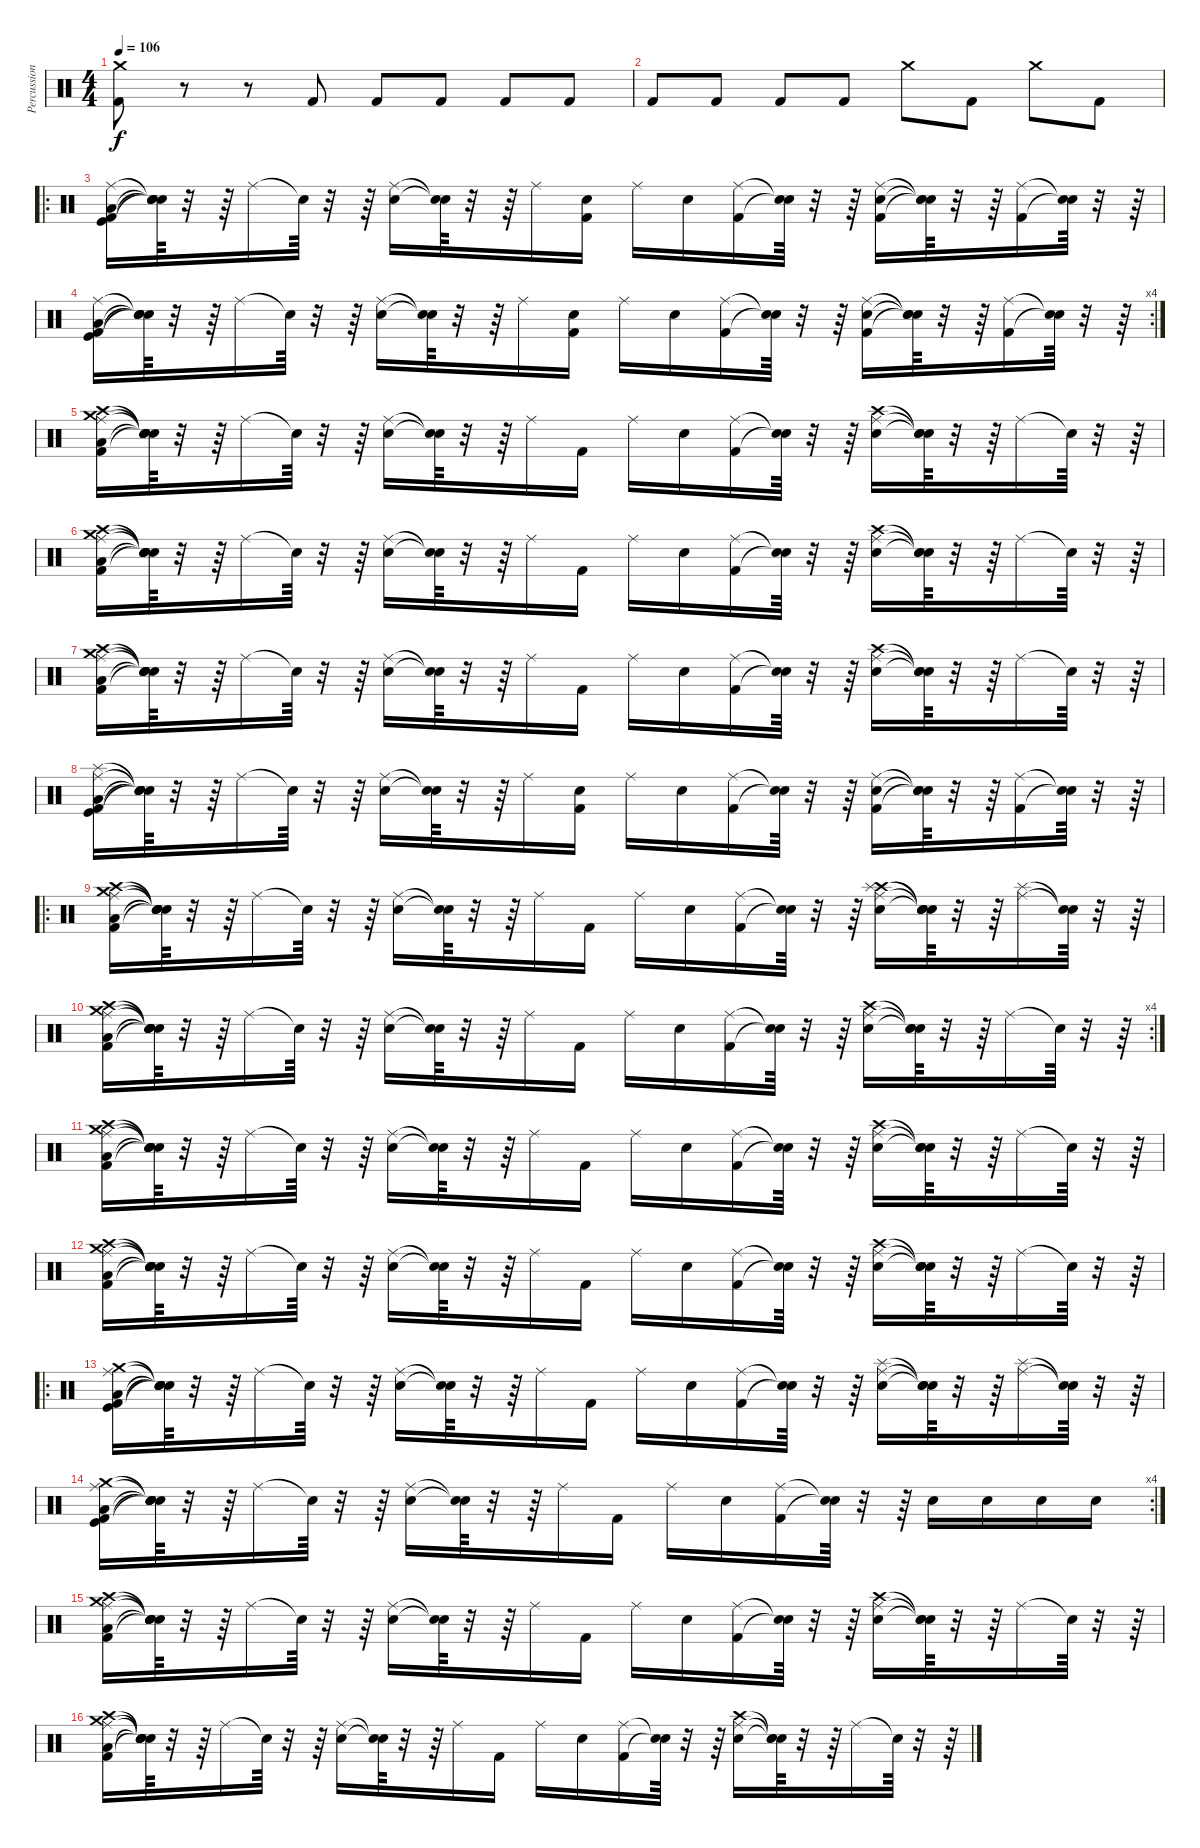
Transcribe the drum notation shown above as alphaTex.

\track ("Percussion" "Percussion") {instrument percussion}
\staff {score}
\articulation defaults
\ts (4 4)
\tempo 106
\clef neutral
\ks c
("Kick (hit) 2" "Crash medium (hit)").8{dy f} r.8 r.8 "Kick (hit) 2".8 "Kick (hit) 2".8 "Kick (hit) 2".8 "Kick (hit) 2".8 "Kick (hit) 2".8 |
"Kick (hit) 2".8 "Kick (hit) 2".8 "Kick (hit) 2".8 "Kick (hit) 2".8 "Crash medium (hit)".8 "Kick (hit) 2".8 "Crash medium (hit)".8 "Kick (hit) 2".8 |
\ro
("Kick (hit) 2" "Low Tom (hit)" "Kick (hit)" "Ride (middle)").16 ("Snare (hit)"{t} "Snare (hit)"{t} "Snare (hit)"{t} "Snare (hit)"{t}).64 r.32 r.64 "Ride (middle)".16 "Snare (hit)"{t}.64 r.32 r.64 ("Snare (hit) 2" "Ride (middle)").16 ("Snare (hit)"{t} "Snare (hit)"{t}).64 r.32 r.64 "Ride (middle)".16 ("Kick (hit) 2" "Snare (hit) 2").16 "Ride (middle)".16 "Snare (hit) 2".16 ("Kick (hit) 2" "Ride (middle)").16 ("Snare (hit)"{t} "Snare (hit)"{t}).64 r.32 r.64 ("Ride (middle)" "Snare (hit) 2" "Kick (hit) 2").16 ("Snare (hit)"{t} "Snare (hit)"{t} "Snare (hit)"{t}).64 r.32 r.64 ("Ride (middle)" "Kick (hit) 2").16 ("Snare (hit)"{t} "Snare (hit)"{t}).64 r.32 r.64 |
\rc 4
("Kick (hit) 2" "Low Tom (hit)" "Kick (hit)" "Ride (middle)").16 ("Snare (hit)"{t} "Snare (hit)"{t} "Snare (hit)"{t} "Snare (hit)"{t}).64 r.32 r.64 "Ride (middle)".16 "Snare (hit)"{t}.64 r.32 r.64 ("Snare (hit) 2" "Ride (middle)").16 ("Snare (hit)"{t} "Snare (hit)"{t}).64 r.32 r.64 "Ride (middle)".16 ("Kick (hit) 2" "Snare (hit) 2").16 "Ride (middle)".16 "Snare (hit) 2".16 ("Kick (hit) 2" "Ride (middle)").16 ("Snare (hit)"{t} "Snare (hit)"{t}).64 r.32 r.64 ("Ride (middle)" "Snare (hit) 2" "Kick (hit) 2").16 ("Snare (hit)"{t} "Snare (hit)"{t} "Snare (hit)"{t}).64 r.32 r.64 ("Ride (middle)" "Kick (hit) 2").16 ("Snare (hit)"{t} "Snare (hit)"{t}).64 r.32 r.64 |
("Kick (hit) 2" "Low Tom (hit)" "Crash high (hit)" "Ride (middle)" "Crash medium (hit)").16 ("Snare (hit)"{t} "Snare (hit)"{t} "Snare (hit)"{t} "Snare (hit)"{t} "Snare (hit)"{t}).64 r.32 r.64 "Ride (middle)".16 "Snare (hit)"{t}.64 r.32 r.64 ("Snare (hit) 2" "Ride (middle)").16 ("Snare (hit)"{t} "Snare (hit)"{t}).64 r.32 r.64 "Ride (middle)".16 "Kick (hit) 2".16 "Ride (middle)".16 "Snare (hit) 2".16 ("Kick (hit) 2" "Ride (middle)").16 ("Snare (hit)"{t} "Snare (hit)"{t}).64 r.32 r.64 ("Ride (middle)" "Snare (hit) 2" "Crash high (hit)").16 ("Snare (hit)"{t} "Snare (hit)"{t} "Snare (hit)"{t}).64 r.32 r.64 "Ride (middle)".16 "Snare (hit)"{t}.64 r.32 r.64 |
("Kick (hit) 2" "Low Tom (hit)" "Crash high (hit)" "Ride (middle)" "Crash medium (hit)").16 ("Snare (hit)"{t} "Snare (hit)"{t} "Snare (hit)"{t} "Snare (hit)"{t} "Snare (hit)"{t}).64 r.32 r.64 "Ride (middle)".16 "Snare (hit)"{t}.64 r.32 r.64 ("Snare (hit) 2" "Ride (middle)").16 ("Snare (hit)"{t} "Snare (hit)"{t}).64 r.32 r.64 "Ride (middle)".16 "Kick (hit) 2".16 "Ride (middle)".16 "Snare (hit) 2".16 ("Kick (hit) 2" "Ride (middle)").16 ("Snare (hit)"{t} "Snare (hit)"{t}).64 r.32 r.64 ("Ride (middle)" "Snare (hit) 2" "Crash high (hit)").16 ("Snare (hit)"{t} "Snare (hit)"{t} "Snare (hit)"{t}).64 r.32 r.64 "Ride (middle)".16 "Snare (hit)"{t}.64 r.32 r.64 |
("Kick (hit) 2" "Low Tom (hit)" "Crash high (hit)" "Ride (middle)" "Crash medium (hit)").16 ("Snare (hit)"{t} "Snare (hit)"{t} "Snare (hit)"{t} "Snare (hit)"{t} "Snare (hit)"{t}).64 r.32 r.64 "Ride (middle)".16 "Snare (hit)"{t}.64 r.32 r.64 ("Snare (hit) 2" "Ride (middle)").16 ("Snare (hit)"{t} "Snare (hit)"{t}).64 r.32 r.64 "Ride (middle)".16 "Kick (hit) 2".16 "Ride (middle)".16 "Snare (hit) 2".16 ("Kick (hit) 2" "Ride (middle)").16 ("Snare (hit)"{t} "Snare (hit)"{t}).64 r.32 r.64 ("Ride (middle)" "Snare (hit) 2" "Crash high (hit)").16 ("Snare (hit)"{t} "Snare (hit)"{t} "Snare (hit)"{t}).64 r.32 r.64 "Ride (middle)".16 "Snare (hit)"{t}.64 r.32 r.64 |
("Kick (hit) 2" "Low Tom (hit)" "Kick (hit)" "Ride (middle)" "Splash (hit)").16 ("Snare (hit)"{t} "Snare (hit)"{t} "Snare (hit)"{t} "Snare (hit)"{t} "Snare (hit)"{t}).64 r.32 r.64 "Ride (middle)".16 "Snare (hit)"{t}.64 r.32 r.64 ("Snare (hit) 2" "Ride (middle)").16 ("Snare (hit)"{t} "Snare (hit)"{t}).64 r.32 r.64 "Ride (middle)".16 ("Kick (hit) 2" "Snare (hit) 2").16 "Ride (middle)".16 "Snare (hit) 2".16 ("Kick (hit) 2" "Ride (middle)").16 ("Snare (hit)"{t} "Snare (hit)"{t}).64 r.32 r.64 ("Ride (middle)" "Snare (hit) 2" "Kick (hit) 2").16 ("Snare (hit)"{t} "Snare (hit)"{t} "Snare (hit)"{t}).64 r.32 r.64 ("Ride (middle)" "Kick (hit) 2").16 ("Snare (hit)"{t} "Snare (hit)"{t}).64 r.32 r.64 |
\ro
("Kick (hit) 2" "Low Tom (hit)" "Crash high (hit)" "Ride (middle)" "Crash medium (hit)").16 ("Snare (hit)"{t} "Snare (hit)"{t} "Snare (hit)"{t} "Snare (hit)"{t} "Snare (hit)"{t}).64 r.32 r.64 "Ride (middle)".16 "Snare (hit)"{t}.64 r.32 r.64 ("Snare (hit) 2" "Ride (middle)").16 ("Snare (hit)"{t} "Snare (hit)"{t}).64 r.32 r.64 "Ride (middle)".16 "Kick (hit) 2".16 "Ride (middle)".16 "Snare (hit) 2".16 ("Kick (hit) 2" "Ride (middle)").16 ("Snare (hit)"{t} "Snare (hit)"{t}).64 r.32 r.64 ("Ride (middle)" "Snare (hit) 2" "Crash high (hit)" "Splash (hit)").16 ("Snare (hit)"{t} "Snare (hit)"{t} "Snare (hit)"{t} "Snare (hit)"{t}).64 r.32 r.64 ("Ride (middle)" "Splash (hit)").16 ("Snare (hit)"{t} "Snare (hit)"{t}).64 r.32 r.64 |
\rc 4
("Kick (hit) 2" "Low Tom (hit)" "Crash high (hit)" "Ride (middle)" "Crash medium (hit)").16 ("Snare (hit)"{t} "Snare (hit)"{t} "Snare (hit)"{t} "Snare (hit)"{t} "Snare (hit)"{t}).64 r.32 r.64 "Ride (middle)".16 "Snare (hit)"{t}.64 r.32 r.64 ("Snare (hit) 2" "Ride (middle)").16 ("Snare (hit)"{t} "Snare (hit)"{t}).64 r.32 r.64 "Ride (middle)".16 "Kick (hit) 2".16 "Ride (middle)".16 "Snare (hit) 2".16 ("Kick (hit) 2" "Ride (middle)").16 ("Snare (hit)"{t} "Snare (hit)"{t}).64 r.32 r.64 ("Ride (middle)" "Snare (hit) 2" "Crash high (hit)").16 ("Snare (hit)"{t} "Snare (hit)"{t} "Snare (hit)"{t}).64 r.32 r.64 "Ride (middle)".16 "Snare (hit)"{t}.64 r.32 r.64 |
("Kick (hit) 2" "Low Tom (hit)" "Crash high (hit)" "Ride (middle)" "Crash medium (hit)").16 ("Snare (hit)"{t} "Snare (hit)"{t} "Snare (hit)"{t} "Snare (hit)"{t} "Snare (hit)"{t}).64 r.32 r.64 "Ride (middle)".16 "Snare (hit)"{t}.64 r.32 r.64 ("Snare (hit) 2" "Ride (middle)").16 ("Snare (hit)"{t} "Snare (hit)"{t}).64 r.32 r.64 "Ride (middle)".16 "Kick (hit) 2".16 "Ride (middle)".16 "Snare (hit) 2".16 ("Kick (hit) 2" "Ride (middle)").16 ("Snare (hit)"{t} "Snare (hit)"{t}).64 r.32 r.64 ("Ride (middle)" "Snare (hit) 2" "Crash high (hit)").16 ("Snare (hit)"{t} "Snare (hit)"{t} "Snare (hit)"{t}).64 r.32 r.64 "Ride (middle)".16 "Snare (hit)"{t}.64 r.32 r.64 |
("Kick (hit) 2" "Low Tom (hit)" "Crash high (hit)" "Ride (middle)" "Crash medium (hit)").16 ("Snare (hit)"{t} "Snare (hit)"{t} "Snare (hit)"{t} "Snare (hit)"{t} "Snare (hit)"{t}).64 r.32 r.64 "Ride (middle)".16 "Snare (hit)"{t}.64 r.32 r.64 ("Snare (hit) 2" "Ride (middle)").16 ("Snare (hit)"{t} "Snare (hit)"{t}).64 r.32 r.64 "Ride (middle)".16 "Kick (hit) 2".16 "Ride (middle)".16 "Snare (hit) 2".16 ("Kick (hit) 2" "Ride (middle)").16 ("Snare (hit)"{t} "Snare (hit)"{t}).64 r.32 r.64 ("Ride (middle)" "Snare (hit) 2" "Crash high (hit)").16 ("Snare (hit)"{t} "Snare (hit)"{t} "Snare (hit)"{t}).64 r.32 r.64 "Ride (middle)".16 "Snare (hit)"{t}.64 r.32 r.64 |
\ro
("Kick (hit) 2" "Low Tom (hit)" "Kick (hit)" "Ride (middle)" "Crash medium (hit)").16 ("Snare (hit)"{t} "Snare (hit)"{t} "Snare (hit)"{t} "Snare (hit)"{t} "Snare (hit)"{t}).64 r.32 r.64 "Ride (middle)".16 "Snare (hit)"{t}.64 r.32 r.64 ("Snare (hit) 2" "Ride (middle)").16 ("Snare (hit)"{t} "Snare (hit)"{t}).64 r.32 r.64 "Ride (middle)".16 "Kick (hit) 2".16 "Ride (middle)".16 "Snare (hit) 2".16 ("Kick (hit) 2" "Ride (middle)").16 ("Snare (hit)"{t} "Snare (hit)"{t}).64 r.32 r.64 ("Ride (middle)" "Snare (hit) 2" "Splash (hit)").16 ("Snare (hit)"{t} "Snare (hit)"{t} "Snare (hit)"{t}).64 r.32 r.64 ("Ride (middle)" "Splash (hit)").16 ("Snare (hit)"{t} "Snare (hit)"{t}).64 r.32 r.64 |
\rc 4
("Kick (hit) 2" "Low Tom (hit)" "Kick (hit)" "Ride (middle)" "Crash medium (hit)").16 ("Snare (hit)"{t} "Snare (hit)"{t} "Snare (hit)"{t} "Snare (hit)"{t} "Snare (hit)"{t}).64 r.32 r.64 "Ride (middle)".16 "Snare (hit)"{t}.64 r.32 r.64 ("Snare (hit) 2" "Ride (middle)").16 ("Snare (hit)"{t} "Snare (hit)"{t}).64 r.32 r.64 "Ride (middle)".16 "Kick (hit) 2".16 "Ride (middle)".16 "Snare (hit) 2".16 ("Kick (hit) 2" "Ride (middle)").16 ("Snare (hit)"{t} "Snare (hit)"{t}).64 r.32 r.64 "Snare (hit) 2".16 "Snare (hit) 2".16 "Snare (hit) 2".16 "Snare (hit) 2".16 |
("Kick (hit) 2" "Low Tom (hit)" "Crash high (hit)" "Ride (middle)" "Crash medium (hit)").16 ("Snare (hit)"{t} "Snare (hit)"{t} "Snare (hit)"{t} "Snare (hit)"{t} "Snare (hit)"{t}).64 r.32 r.64 "Ride (middle)".16 "Snare (hit)"{t}.64 r.32 r.64 ("Snare (hit) 2" "Ride (middle)").16 ("Snare (hit)"{t} "Snare (hit)"{t}).64 r.32 r.64 "Ride (middle)".16 "Kick (hit) 2".16 "Ride (middle)".16 "Snare (hit) 2".16 ("Kick (hit) 2" "Ride (middle)").16 ("Snare (hit)"{t} "Snare (hit)"{t}).64 r.32 r.64 ("Ride (middle)" "Snare (hit) 2" "Crash high (hit)").16 ("Snare (hit)"{t} "Snare (hit)"{t} "Snare (hit)"{t}).64 r.32 r.64 "Ride (middle)".16 "Snare (hit)"{t}.64 r.32 r.64 |
("Kick (hit) 2" "Low Tom (hit)" "Crash high (hit)" "Ride (middle)" "Crash medium (hit)").16 ("Snare (hit)"{t} "Snare (hit)"{t} "Snare (hit)"{t} "Snare (hit)"{t} "Snare (hit)"{t}).64 r.32 r.64 "Ride (middle)".16 "Snare (hit)"{t}.64 r.32 r.64 ("Snare (hit) 2" "Ride (middle)").16 ("Snare (hit)"{t} "Snare (hit)"{t}).64 r.32 r.64 "Ride (middle)".16 "Kick (hit) 2".16 "Ride (middle)".16 "Snare (hit) 2".16 ("Kick (hit) 2" "Ride (middle)").16 ("Snare (hit)"{t} "Snare (hit)"{t}).64 r.32 r.64 ("Ride (middle)" "Snare (hit) 2" "Crash high (hit)").16 ("Snare (hit)"{t} "Snare (hit)"{t} "Snare (hit)"{t}).64 r.32 r.64 "Ride (middle)".16 "Snare (hit)"{t}.64 r.32 r.64
